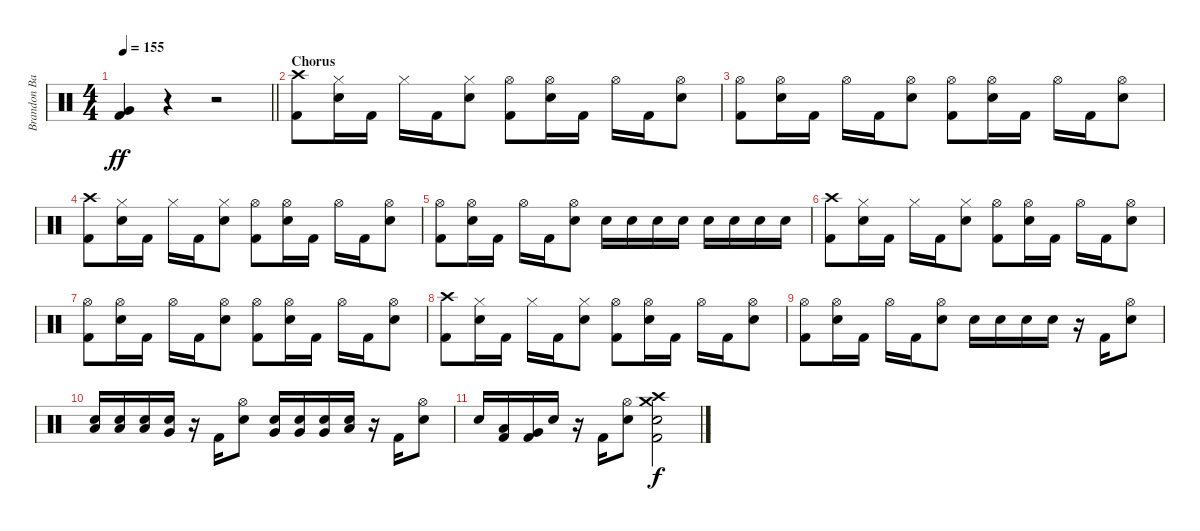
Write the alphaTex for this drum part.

\track ("Brandon Barnes - Drums" "Brandon Ba") {instrument percussion}
\staff {score}
\articulation defaults
\ts (4 4)
\tempo 155
\clef neutral
\barLineRight lightlight
\ks c
("Very Low Tom (hit)" "Kick (hit) 2").4{dy ff} r.4 r.2 |
\section ("" "Chorus")
("Kick (hit) 2" "Crash high (hit)").8 ("Snare (hit) 2" "Hi-Hat (closed)").16 "Kick (hit) 2".16 "Hi-Hat (closed)".16 "Kick (hit) 2".16 ("Snare (hit) 2" "Hi-Hat (closed)").8 ("Kick (hit) 2" "Hi-Hat (open)").8 ("Snare (hit) 2" "Hi-Hat (open)").16 "Kick (hit) 2".16 "Hi-Hat (open)".16 "Kick (hit) 2".16 ("Snare (hit) 2" "Hi-Hat (open)").8 |
("Kick (hit) 2" "Hi-Hat (open)").8 ("Snare (hit) 2" "Hi-Hat (open)").16 "Kick (hit) 2".16 "Hi-Hat (open)".16 "Kick (hit) 2".16 ("Snare (hit) 2" "Hi-Hat (open)").8 ("Kick (hit) 2" "Hi-Hat (open)").8 ("Snare (hit) 2" "Hi-Hat (open)").16 "Kick (hit) 2".16 "Hi-Hat (open)".16 "Kick (hit) 2".16 ("Snare (hit) 2" "Hi-Hat (open)").8 |
("Kick (hit) 2" "Crash high (hit)").8 ("Snare (hit) 2" "Hi-Hat (closed)").16 "Kick (hit) 2".16 "Hi-Hat (closed)".16 "Kick (hit) 2".16 ("Snare (hit) 2" "Hi-Hat (closed)").8 ("Kick (hit) 2" "Hi-Hat (open)").8 ("Snare (hit) 2" "Hi-Hat (open)").16 "Kick (hit) 2".16 "Hi-Hat (open)".16 "Kick (hit) 2".16 ("Snare (hit) 2" "Hi-Hat (open)").8 |
("Kick (hit) 2" "Hi-Hat (open)").8 ("Snare (hit) 2" "Hi-Hat (open)").16 "Kick (hit) 2".16 "Hi-Hat (open)".16 "Kick (hit) 2".16 ("Snare (hit) 2" "Hi-Hat (open)").8 "Snare (hit) 2".16 "Snare (hit) 2".16 "Snare (hit) 2".16 "Snare (hit) 2".16 "Snare (hit) 2".16 "Snare (hit) 2".16 "Snare (hit) 2".16 "Snare (hit) 2".16 |
("Kick (hit) 2" "Crash high (hit)").8 ("Snare (hit) 2" "Hi-Hat (closed)").16 "Kick (hit) 2".16 "Hi-Hat (closed)".16 "Kick (hit) 2".16 ("Snare (hit) 2" "Hi-Hat (closed)").8 ("Kick (hit) 2" "Hi-Hat (open)").8 ("Snare (hit) 2" "Hi-Hat (open)").16 "Kick (hit) 2".16 "Hi-Hat (open)".16 "Kick (hit) 2".16 ("Snare (hit) 2" "Hi-Hat (open)").8 |
("Kick (hit) 2" "Hi-Hat (open)").8 ("Snare (hit) 2" "Hi-Hat (open)").16 "Kick (hit) 2".16 "Hi-Hat (open)".16 "Kick (hit) 2".16 ("Snare (hit) 2" "Hi-Hat (open)").8 ("Kick (hit) 2" "Hi-Hat (open)").8 ("Snare (hit) 2" "Hi-Hat (open)").16 "Kick (hit) 2".16 "Hi-Hat (open)".16 "Kick (hit) 2".16 ("Snare (hit) 2" "Hi-Hat (open)").8 |
("Kick (hit) 2" "Crash high (hit)").8 ("Snare (hit) 2" "Hi-Hat (closed)").16 "Kick (hit) 2".16 "Hi-Hat (closed)".16 "Kick (hit) 2".16 ("Snare (hit) 2" "Hi-Hat (closed)").8 ("Kick (hit) 2" "Hi-Hat (open)").8 ("Snare (hit) 2" "Hi-Hat (open)").16 "Kick (hit) 2".16 "Hi-Hat (open)".16 "Kick (hit) 2".16 ("Snare (hit) 2" "Hi-Hat (open)").8 |
("Kick (hit) 2" "Hi-Hat (open)").8 ("Snare (hit) 2" "Hi-Hat (open)").16 "Kick (hit) 2".16 "Hi-Hat (open)".16 "Kick (hit) 2".16 ("Snare (hit) 2" "Hi-Hat (open)").8 "Snare (hit) 2".16 "Snare (hit) 2".16 "Snare (hit) 2".16 "Snare (hit) 2".16 r.16 "Kick (hit) 2".16 ("Snare (hit) 2" "Hi-Hat (open)").8 |
("Snare (hit) 2" "Low Tom (hit)").16 ("Snare (hit) 2" "Low Tom (hit)").16 ("Snare (hit) 2" "Low Tom (hit)").16 ("Snare (hit) 2" "Very Low Tom (hit)").16 r.16 "Kick (hit) 2".16 ("Snare (hit) 2" "Hi-Hat (open)").8 ("Snare (hit) 2" "Very Low Tom (hit)").16 ("Snare (hit) 2" "Very Low Tom (hit)").16 ("Snare (hit) 2" "Very Low Tom (hit)").16 ("Snare (hit) 2" "Low Floor Tom (hit)").16 r.16 "Kick (hit) 2".16 ("Snare (hit) 2" "Hi-Hat (open)").8 |
"Snare (hit) 2".16 ("Low Tom (hit)" "Kick (hit) 2").16 ("Very Low Tom (hit)" "Kick (hit) 2").16 "Snare (hit) 2".16 r.16 "Kick (hit) 2".16 ("Snare (hit) 2" "Hi-Hat (open)").8 ("Crash high (hit)" "Snare (hit) 2" "Kick (hit) 2" "Crash medium (hit)").2{dy f}
